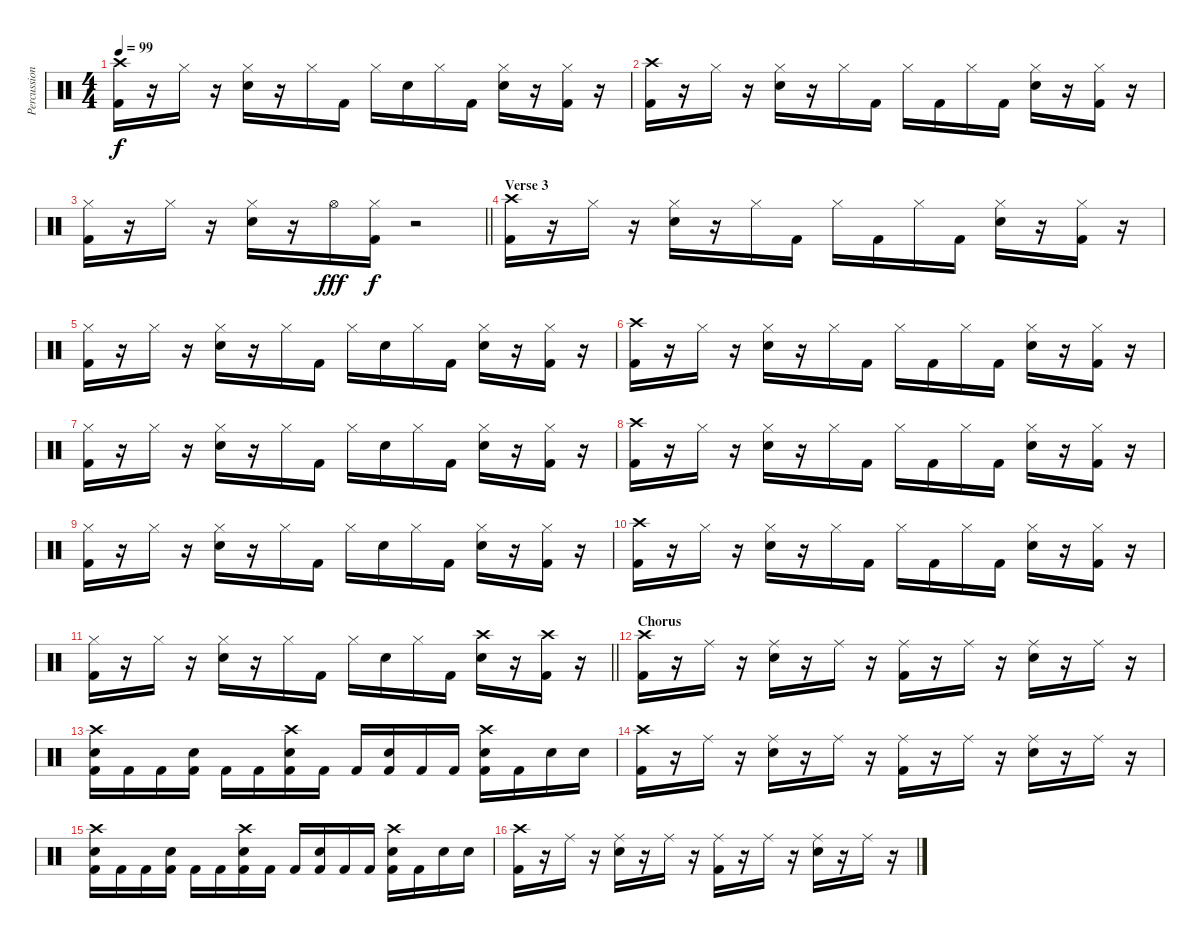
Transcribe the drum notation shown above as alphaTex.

\track ("Percussion" "Percussion") {instrument percussion}
\staff {score}
\articulation defaults
\ts (4 4)
\tempo 99
\clef neutral
\ks c
("Crash high (hit)" "Kick (hit) 2").16{dy f} r.16 "Hi-Hat (closed)".16 r.16 ("Hi-Hat (closed)" "Snare (hit) 2").16 r.16 "Hi-Hat (closed)".16 "Kick (hit) 2".16 "Hi-Hat (closed)".16 "Snare (hit) 2".16 "Hi-Hat (closed)".16 "Kick (hit) 2".16 ("Hi-Hat (closed)" "Snare (hit) 2").16 r.16 ("Hi-Hat (closed)" "Kick (hit) 2").16 r.16 |
("Crash high (hit)" "Kick (hit) 2").16 r.16 "Hi-Hat (closed)".16 r.16 ("Hi-Hat (closed)" "Snare (hit) 2").16 r.16 "Hi-Hat (closed)".16 "Kick (hit) 2".16 "Hi-Hat (closed)".16 "Kick (hit) 2".16 "Hi-Hat (closed)".16 "Kick (hit) 2".16 ("Hi-Hat (closed)" "Snare (hit) 2").16 r.16 ("Hi-Hat (closed)" "Kick (hit) 2").16 r.16 |
\barLineRight lightlight
("Hi-Hat (closed)" "Kick (hit) 2").16 r.16 "Hi-Hat (closed)".16 r.16 ("Hi-Hat (closed)" "Snare (hit) 2").16 r.16 "Hi-Hat (open)".16{dy fff} ("Hi-Hat (closed)" "Kick (hit) 2").16{dy f} r.2 |
\section ("" "Verse 3")
("Crash high (hit)" "Kick (hit) 2").16{volume 12} r.16 "Hi-Hat (closed)".16 r.16 ("Hi-Hat (closed)" "Snare (hit) 2").16 r.16 "Hi-Hat (closed)".16 "Kick (hit) 2".16 "Hi-Hat (closed)".16 "Kick (hit) 2".16 "Hi-Hat (closed)".16 "Kick (hit) 2".16 ("Hi-Hat (closed)" "Snare (hit) 2").16 r.16 ("Hi-Hat (closed)" "Kick (hit) 2").16 r.16 |
("Hi-Hat (closed)" "Kick (hit) 2").16 r.16 "Hi-Hat (closed)".16 r.16 ("Hi-Hat (closed)" "Snare (hit) 2").16 r.16 "Hi-Hat (closed)".16 "Kick (hit) 2".16 "Hi-Hat (closed)".16 "Snare (hit) 2".16 "Hi-Hat (closed)".16 "Kick (hit) 2".16 ("Hi-Hat (closed)" "Snare (hit) 2").16 r.16 ("Hi-Hat (closed)" "Kick (hit) 2").16 r.16 |
("Crash high (hit)" "Kick (hit) 2").16 r.16 "Hi-Hat (closed)".16 r.16 ("Hi-Hat (closed)" "Snare (hit) 2").16 r.16 "Hi-Hat (closed)".16 "Kick (hit) 2".16 "Hi-Hat (closed)".16 "Kick (hit) 2".16 "Hi-Hat (closed)".16 "Kick (hit) 2".16 ("Hi-Hat (closed)" "Snare (hit) 2").16 r.16 ("Hi-Hat (closed)" "Kick (hit) 2").16 r.16 |
("Hi-Hat (closed)" "Kick (hit) 2").16 r.16 "Hi-Hat (closed)".16 r.16 ("Hi-Hat (closed)" "Snare (hit) 2").16 r.16 "Hi-Hat (closed)".16 "Kick (hit) 2".16 "Hi-Hat (closed)".16 "Snare (hit) 2".16 "Hi-Hat (closed)".16 "Kick (hit) 2".16 ("Hi-Hat (closed)" "Snare (hit) 2").16 r.16 ("Hi-Hat (closed)" "Kick (hit) 2").16 r.16 |
("Crash high (hit)" "Kick (hit) 2").16 r.16 "Hi-Hat (closed)".16 r.16 ("Hi-Hat (closed)" "Snare (hit) 2").16 r.16 "Hi-Hat (closed)".16 "Kick (hit) 2".16 "Hi-Hat (closed)".16 "Kick (hit) 2".16 "Hi-Hat (closed)".16 "Kick (hit) 2".16 ("Hi-Hat (closed)" "Snare (hit) 2").16 r.16 ("Hi-Hat (closed)" "Kick (hit) 2").16 r.16 |
("Hi-Hat (closed)" "Kick (hit) 2").16 r.16 "Hi-Hat (closed)".16 r.16 ("Hi-Hat (closed)" "Snare (hit) 2").16 r.16 "Hi-Hat (closed)".16 "Kick (hit) 2".16 "Hi-Hat (closed)".16 "Snare (hit) 2".16 "Hi-Hat (closed)".16 "Kick (hit) 2".16 ("Hi-Hat (closed)" "Snare (hit) 2").16 r.16 ("Hi-Hat (closed)" "Kick (hit) 2").16 r.16 |
("Crash high (hit)" "Kick (hit) 2").16 r.16 "Hi-Hat (closed)".16 r.16 ("Hi-Hat (closed)" "Snare (hit) 2").16 r.16 "Hi-Hat (closed)".16 "Kick (hit) 2".16 "Hi-Hat (closed)".16 "Kick (hit) 2".16 "Hi-Hat (closed)".16 "Kick (hit) 2".16 ("Hi-Hat (closed)" "Snare (hit) 2").16 r.16 ("Hi-Hat (closed)" "Kick (hit) 2").16 r.16 |
\barLineRight lightlight
("Hi-Hat (closed)" "Kick (hit) 2").16 r.16 "Hi-Hat (closed)".16 r.16 ("Hi-Hat (closed)" "Snare (hit) 2").16 r.16 "Hi-Hat (closed)".16 "Kick (hit) 2".16 "Hi-Hat (closed)".16 "Snare (hit) 2".16 "Hi-Hat (closed)".16 "Kick (hit) 2".16 ("Crash high (hit)" "Snare (hit) 2").16 r.16 ("Crash high (hit)" "Kick (hit) 2").16 r.16 |
\section ("" "Chorus")
("Crash high (hit)" "Kick (hit) 2").16 r.16 "Ride (middle)".16 r.16 ("Ride (middle)" "Snare (hit) 2").16 r.16 "Ride (middle)".16 r.16 ("Ride (middle)" "Kick (hit) 2").16 r.16 "Ride (middle)".16 r.16 ("Ride (middle)" "Snare (hit) 2").16 r.16 "Ride (middle)".16 r.16 |
("Crash high (hit)" "Snare (hit) 2" "Kick (hit) 2").16 "Kick (hit) 2".16 "Kick (hit) 2".16 ("Snare (hit) 2" "Kick (hit) 2").16 "Kick (hit) 2".16 "Kick (hit) 2".16 ("Crash high (hit)" "Snare (hit) 2" "Kick (hit) 2").16 "Kick (hit) 2".16 "Kick (hit) 2".16 ("Snare (hit) 2" "Kick (hit) 2").16 "Kick (hit) 2".16 "Kick (hit) 2".16 ("Crash high (hit)" "Snare (hit) 2" "Kick (hit) 2").16 "Kick (hit) 2".16 "Snare (hit) 2".16 "Snare (hit) 2".16 |
("Crash high (hit)" "Kick (hit) 2").16 r.16 "Ride (middle)".16 r.16 ("Ride (middle)" "Snare (hit) 2").16 r.16 "Ride (middle)".16 r.16 ("Ride (middle)" "Kick (hit) 2").16 r.16 "Ride (middle)".16 r.16 ("Ride (middle)" "Snare (hit) 2").16 r.16 "Ride (middle)".16 r.16 |
("Crash high (hit)" "Snare (hit) 2" "Kick (hit) 2").16 "Kick (hit) 2".16 "Kick (hit) 2".16 ("Snare (hit) 2" "Kick (hit) 2").16 "Kick (hit) 2".16 "Kick (hit) 2".16 ("Crash high (hit)" "Snare (hit) 2" "Kick (hit) 2").16 "Kick (hit) 2".16 "Kick (hit) 2".16 ("Snare (hit) 2" "Kick (hit) 2").16 "Kick (hit) 2".16 "Kick (hit) 2".16 ("Crash high (hit)" "Snare (hit) 2" "Kick (hit) 2").16 "Kick (hit) 2".16 "Snare (hit) 2".16 "Snare (hit) 2".16 |
("Crash high (hit)" "Kick (hit) 2").16 r.16 "Ride (middle)".16 r.16 ("Ride (middle)" "Snare (hit) 2").16 r.16 "Ride (middle)".16 r.16 ("Ride (middle)" "Kick (hit) 2").16 r.16 "Ride (middle)".16 r.16 ("Ride (middle)" "Snare (hit) 2").16 r.16 "Ride (middle)".16 r.16
